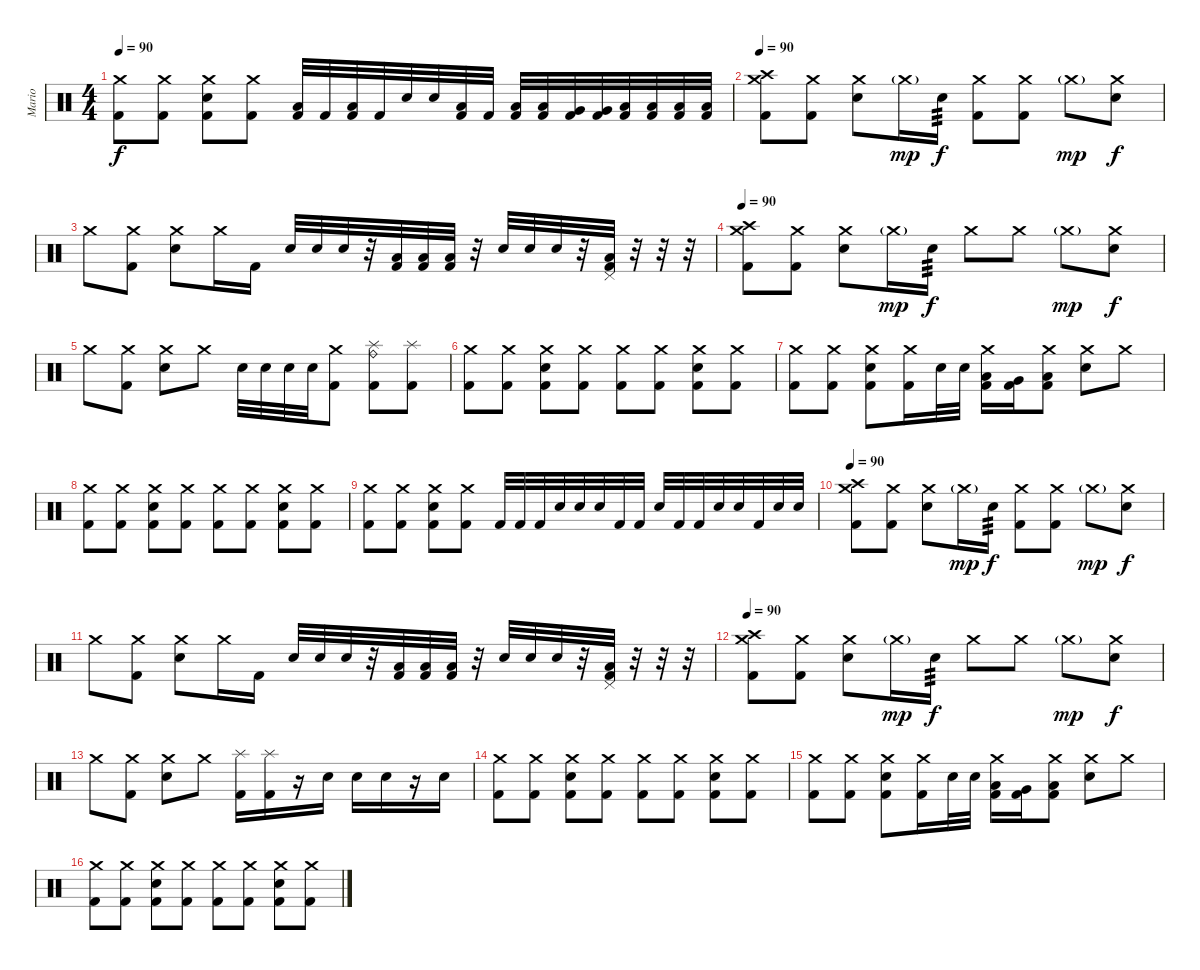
\track ("Mario" "Mario") {instrument percussion}
\staff {score}
\articulation defaults
\ts (4 4)
\tempo 90
\clef neutral
\ks c
("Crash medium (hit)" "Kick (hit) 2").8{dy f} ("Crash medium (hit)" "Kick (hit) 2").8 ("Crash medium (hit)" "Electric Snare (hit)" "Kick (hit) 2").8 ("Crash medium (hit)" "Kick (hit) 2").8 ("Low Floor Tom (hit)" "Kick (hit) 2").32 "Kick (hit) 2".32 ("Low Floor Tom (hit)" "Kick (hit) 2").32 "Kick (hit) 2".32 "Electric Snare (hit)".32 "Electric Snare (hit)".32 ("Low Floor Tom (hit)" "Kick (hit) 2").32 "Kick (hit) 2".32 ("Low Tom (hit)" "Kick (hit) 2").32 ("Low Tom (hit)" "Kick (hit) 2").32 ("Very Low Tom (hit)" "Kick (hit) 2").32 ("Very Low Tom (hit)" "Kick (hit) 2").32 ("Low Floor Tom (hit)" "Kick (hit) 2").32 ("Low Floor Tom (hit)" "Kick (hit) 2").32 ("Low Floor Tom (hit)" "Kick (hit) 2").32 ("Low Floor Tom (hit)" "Kick (hit) 2").32 |
\tempo 90
("Crash medium (hit)" "Crash high (hit)" "Kick (hit) 2").8 ("Crash medium (hit)" "Kick (hit) 2").8 ("Crash medium (hit)" "Electric Snare (hit)").8 "Crash medium (hit)"{g}.16{dy mp} "Electric Snare (hit)".16{tp 3 dy f} ("Crash medium (hit)" "Kick (hit) 2").8 ("Crash medium (hit)" "Kick (hit) 2").8 "Crash medium (hit)"{g}.8{dy mp} ("Crash medium (hit)" "Electric Snare (hit)").8{dy f} |
"Crash medium (hit)".8 ("Crash medium (hit)" "Kick (hit) 2").8 ("Crash medium (hit)" "Electric Snare (hit)").8 "Crash medium (hit)".16 "Kick (hit) 2".16 "Electric Snare (hit)".32 "Electric Snare (hit)".32 "Electric Snare (hit)".32 r.32 ("Low Floor Tom (hit)" "Kick (hit) 2").32 ("Low Floor Tom (hit)" "Kick (hit) 2").32 ("Low Floor Tom (hit)" "Kick (hit) 2").32 r.32 "Electric Snare (hit)".32 "Electric Snare (hit)".32 "Electric Snare (hit)".32 r.32 ("Pedal Hi-Hat (hit)" "Low Floor Tom (hit)" "Kick (hit) 2").32 r.32 r.32 r.32 |
\tempo 90
("Crash medium (hit)" "Crash high (hit)" "Kick (hit) 2").8 ("Crash medium (hit)" "Kick (hit) 2").8 ("Crash medium (hit)" "Electric Snare (hit)").8 "Crash medium (hit)"{g}.16{dy mp} "Electric Snare (hit)".16{tp 3 dy f} "Crash medium (hit)".8 "Crash medium (hit)".8 "Crash medium (hit)"{g}.8{dy mp} ("Crash medium (hit)" "Electric Snare (hit)").8{dy f} |
"Crash medium (hit)".8 ("Crash medium (hit)" "Kick (hit) 2").8 ("Crash medium (hit)" "Electric Snare (hit)").8 "Crash medium (hit)".8 "Electric Snare (hit)".32 "Electric Snare (hit)".32 "Electric Snare (hit)".32 "Electric Snare (hit)".32 ("Crash medium (hit)" "Kick (hit) 2").8 ("Splash (hit)" "Ride (bell)" "Kick (hit) 2").8 ("Splash (hit)" "Kick (hit) 2").8 |
("Crash medium (hit)" "Kick (hit) 2").8 ("Crash medium (hit)" "Kick (hit) 2").8 ("Crash medium (hit)" "Electric Snare (hit)" "Kick (hit) 2").8 ("Crash medium (hit)" "Kick (hit) 2").8 ("Crash medium (hit)" "Kick (hit) 2").8 ("Crash medium (hit)" "Kick (hit) 2").8 ("Crash medium (hit)" "Electric Snare (hit)" "Kick (hit) 2").8 ("Crash medium (hit)" "Kick (hit) 2").8 |
("Crash medium (hit)" "Kick (hit) 2").8 ("Crash medium (hit)" "Kick (hit) 2").8 ("Crash medium (hit)" "Electric Snare (hit)" "Kick (hit) 2").8 ("Crash medium (hit)" "Kick (hit) 2").16 "Electric Snare (hit)".32 "Electric Snare (hit)".32 ("Crash medium (hit)" "Low Tom (hit)" "Kick (hit) 2").16 ("Very Low Tom (hit)" "Kick (hit) 2").16 ("Crash medium (hit)" "Low Floor Tom (hit)" "Kick (hit) 2").8 ("Crash medium (hit)" "Electric Snare (hit)").8 "Crash medium (hit)".8 |
("Crash medium (hit)" "Kick (hit) 2").8 ("Crash medium (hit)" "Kick (hit) 2").8 ("Crash medium (hit)" "Electric Snare (hit)" "Kick (hit) 2").8 ("Crash medium (hit)" "Kick (hit) 2").8 ("Crash medium (hit)" "Kick (hit) 2").8 ("Crash medium (hit)" "Kick (hit) 2").8 ("Crash medium (hit)" "Electric Snare (hit)" "Kick (hit) 2").8 ("Crash medium (hit)" "Kick (hit) 2").8 |
("Crash medium (hit)" "Kick (hit) 2").8 ("Crash medium (hit)" "Kick (hit) 2").8 ("Crash medium (hit)" "Electric Snare (hit)" "Kick (hit) 2").8 ("Crash medium (hit)" "Kick (hit) 2").8 "Kick (hit) 2".32 "Kick (hit) 2".32 "Kick (hit) 2".32 "Electric Snare (hit)".32 "Electric Snare (hit)".32 "Electric Snare (hit)".32 "Kick (hit) 2".32 "Kick (hit) 2".32 "Electric Snare (hit)".32 "Kick (hit) 2".32 "Kick (hit) 2".32 "Electric Snare (hit)".32 "Electric Snare (hit)".32 "Kick (hit) 2".32 "Electric Snare (hit)".32 "Electric Snare (hit)".32 |
\tempo 90
("Crash medium (hit)" "Crash high (hit)" "Kick (hit) 2").8 ("Crash medium (hit)" "Kick (hit) 2").8 ("Crash medium (hit)" "Electric Snare (hit)").8 "Crash medium (hit)"{g}.16{dy mp} "Electric Snare (hit)".16{tp 3 dy f} ("Crash medium (hit)" "Kick (hit) 2").8 ("Crash medium (hit)" "Kick (hit) 2").8 "Crash medium (hit)"{g}.8{dy mp} ("Crash medium (hit)" "Electric Snare (hit)").8{dy f} |
"Crash medium (hit)".8 ("Crash medium (hit)" "Kick (hit) 2").8 ("Crash medium (hit)" "Electric Snare (hit)").8 "Crash medium (hit)".16 "Kick (hit) 2".16 "Electric Snare (hit)".32 "Electric Snare (hit)".32 "Electric Snare (hit)".32 r.32 ("Low Floor Tom (hit)" "Kick (hit) 2").32 ("Low Floor Tom (hit)" "Kick (hit) 2").32 ("Low Floor Tom (hit)" "Kick (hit) 2").32 r.32 "Electric Snare (hit)".32 "Electric Snare (hit)".32 "Electric Snare (hit)".32 r.32 ("Pedal Hi-Hat (hit)" "Low Floor Tom (hit)" "Kick (hit) 2").32 r.32 r.32 r.32 |
\tempo 90
("Crash medium (hit)" "Crash high (hit)" "Kick (hit) 2").8 ("Crash medium (hit)" "Kick (hit) 2").8 ("Crash medium (hit)" "Electric Snare (hit)").8 "Crash medium (hit)"{g}.16{dy mp} "Electric Snare (hit)".16{tp 3 dy f} "Crash medium (hit)".8 "Crash medium (hit)".8 "Crash medium (hit)"{g}.8{dy mp} ("Crash medium (hit)" "Electric Snare (hit)").8{dy f} |
"Crash medium (hit)".8 ("Crash medium (hit)" "Kick (hit) 2").8 ("Crash medium (hit)" "Electric Snare (hit)").8 "Crash medium (hit)".8 ("Splash (hit)" "Kick (hit) 2").16 ("Splash (hit)" "Kick (hit) 2").16 r.16 "Electric Snare (hit)".16 "Electric Snare (hit)".16 "Electric Snare (hit)".16 r.16 "Electric Snare (hit)".16 |
("Crash medium (hit)" "Kick (hit) 2").8 ("Crash medium (hit)" "Kick (hit) 2").8 ("Crash medium (hit)" "Electric Snare (hit)" "Kick (hit) 2").8 ("Crash medium (hit)" "Kick (hit) 2").8 ("Crash medium (hit)" "Kick (hit) 2").8 ("Crash medium (hit)" "Kick (hit) 2").8 ("Crash medium (hit)" "Electric Snare (hit)" "Kick (hit) 2").8 ("Crash medium (hit)" "Kick (hit) 2").8 |
("Crash medium (hit)" "Kick (hit) 2").8 ("Crash medium (hit)" "Kick (hit) 2").8 ("Crash medium (hit)" "Electric Snare (hit)" "Kick (hit) 2").8 ("Crash medium (hit)" "Kick (hit) 2").16 "Electric Snare (hit)".32 "Electric Snare (hit)".32 ("Crash medium (hit)" "Low Tom (hit)" "Kick (hit) 2").16 ("Very Low Tom (hit)" "Kick (hit) 2").16 ("Crash medium (hit)" "Low Floor Tom (hit)" "Kick (hit) 2").8 ("Crash medium (hit)" "Electric Snare (hit)").8 "Crash medium (hit)".8 |
("Crash medium (hit)" "Kick (hit) 2").8 ("Crash medium (hit)" "Kick (hit) 2").8 ("Crash medium (hit)" "Electric Snare (hit)" "Kick (hit) 2").8 ("Crash medium (hit)" "Kick (hit) 2").8 ("Crash medium (hit)" "Kick (hit) 2").8 ("Crash medium (hit)" "Kick (hit) 2").8 ("Crash medium (hit)" "Electric Snare (hit)" "Kick (hit) 2").8 ("Crash medium (hit)" "Kick (hit) 2").8
